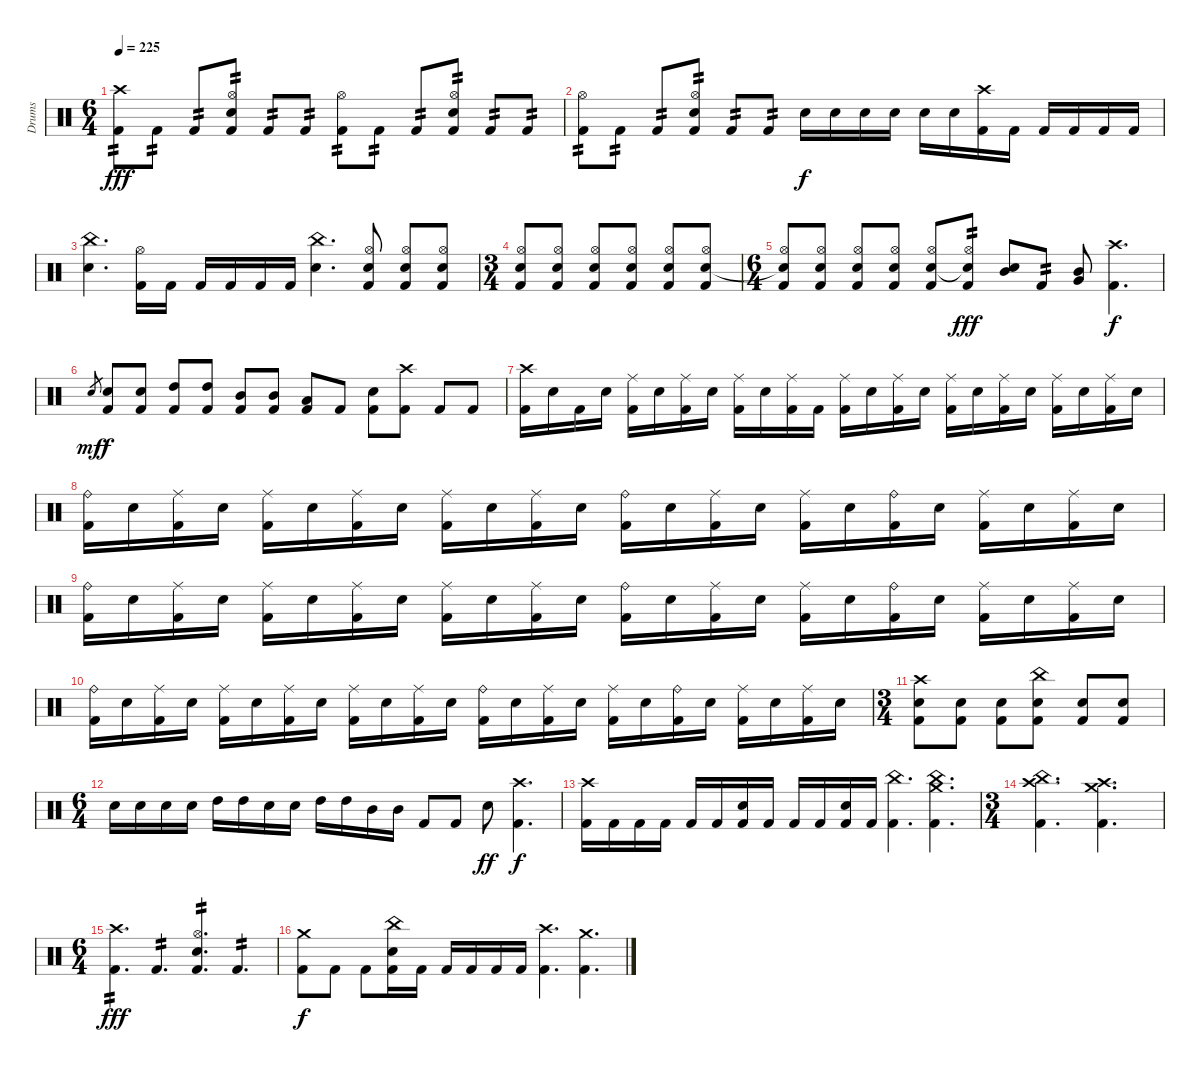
\track ("Drums" "Drums") {instrument percussion}
\staff {score}
\articulation defaults
\ts (6 4)
\tempo 225
\clef neutral
\ks c
("Crash high (hit)" "Kick (hit) 2").8{tp 2 dy fff} "Kick (hit) 2".8{tp 2} "Kick (hit) 2".8{tp 2} ("Hi-Hat (open)" "Snare (hit) 2" "Kick (hit) 2").8{tp 2} "Kick (hit) 2".8{tp 2} "Kick (hit) 2".8{tp 2} ("Hi-Hat (open)" "Kick (hit) 2").8{tp 2} "Kick (hit) 2".8{tp 2} "Kick (hit) 2".8{tp 2} ("Hi-Hat (open)" "Snare (hit) 2" "Kick (hit) 2").8{tp 2} "Kick (hit) 2".8{tp 2} "Kick (hit) 2".8{tp 2} |
("Hi-Hat (open)" "Kick (hit) 2").8{tp 2} "Kick (hit) 2".8{tp 2} "Kick (hit) 2".8{tp 2} ("Hi-Hat (open)" "Snare (hit) 2" "Kick (hit) 2").8{tp 2} "Kick (hit) 2".8{tp 2} "Kick (hit) 2".8{tp 2} "Snare (hit) 2".16{dy f} "Snare (hit) 2".16 "Snare (hit) 2".16 "Snare (hit) 2".16 "Snare (hit) 2".16 "Snare (hit) 2".16 ("Crash high (hit)" "Kick (hit) 2").16 "Kick (hit) 2".16 "Kick (hit) 2".16 "Kick (hit) 2".16 "Kick (hit) 2".16 "Kick (hit) 2".16 |
("China (hit)" "Snare (hit) 2").4{d} ("Hi-Hat (open)" "Kick (hit) 2").16 "Kick (hit) 2".16 "Kick (hit) 2".16 "Kick (hit) 2".16 "Kick (hit) 2".16 "Kick (hit) 2".16 ("China (hit)" "Snare (hit) 2").4{d} ("Hi-Hat (open)" "Snare (hit) 2" "Kick (hit) 2").8 ("Hi-Hat (open)" "Snare (hit) 2" "Kick (hit) 2").8 ("Hi-Hat (open)" "Snare (hit) 2" "Kick (hit) 2").8 |
\ts (3 4)
("Hi-Hat (open)" "Snare (hit) 2" "Kick (hit) 2").8 ("Hi-Hat (open)" "Snare (hit) 2" "Kick (hit) 2").8 ("Hi-Hat (open)" "Snare (hit) 2" "Kick (hit) 2").8 ("Hi-Hat (open)" "Snare (hit) 2" "Kick (hit) 2").8 ("Hi-Hat (open)" "Snare (hit) 2" "Kick (hit) 2").8 ("Hi-Hat (open)" "Snare (hit) 2" "Kick (hit) 2").8 |
\ts (6 4)
("Hi-Hat (open)" "Snare (hit) 2"{t} "Kick (hit) 2").8 ("Hi-Hat (open)" "Snare (hit) 2" "Kick (hit) 2").8 ("Hi-Hat (open)" "Snare (hit) 2" "Kick (hit) 2").8 ("Hi-Hat (open)" "Snare (hit) 2" "Kick (hit) 2").8 ("Hi-Hat (open)" "Snare (hit) 2" "Kick (hit) 2").8 ("Hi-Hat (open)" "Snare (hit) 2"{t} "Kick (hit) 2").8{tp 2 dy fff} ("Mid Tom (hit)" "Snare (hit) 2").8 "Kick (hit) 2".8{tp 2} ("Very Low Tom (hit)" "Mid Tom (hit)").8 ("Crash high (hit)" "Kick (hit) 2").4{d dy f} |
"Snare (hit) 2".8{gr dy mf} ("Snare (hit) 2" "Kick (hit) 2").8{dy f} ("Snare (hit) 2" "Kick (hit) 2").8 ("High Tom (hit)" "Kick (hit) 2").8 ("High Tom (hit)" "Kick (hit) 2").8 ("Mid Tom (hit)" "Kick (hit) 2").8 ("Mid Tom (hit)" "Kick (hit) 2").8 ("Low Tom (hit)" "Kick (hit) 2").8 "Kick (hit) 2".8 ("Snare (hit) 2" "Kick (hit) 2").8 ("Crash high (hit)" "Kick (hit) 2").8 "Kick (hit) 2".8 "Kick (hit) 2".8 |
("Crash high (hit)" "Kick (hit) 2").16 "Snare (hit) 2".16 "Kick (hit) 2".16 "Snare (hit) 2".16 ("Ride (middle)" "Kick (hit) 2").16 "Snare (hit) 2".16 ("Ride (middle)" "Kick (hit) 2").16 "Snare (hit) 2".16 ("Ride (middle)" "Kick (hit) 2").16 "Snare (hit) 2".16 ("Ride (middle)" "Kick (hit) 2").16 "Kick (hit) 2".16 ("Ride (middle)" "Kick (hit) 2").16 "Snare (hit) 2".16 ("Ride (middle)" "Kick (hit) 2").16 "Snare (hit) 2".16 ("Ride (middle)" "Kick (hit) 2").16 "Snare (hit) 2".16 ("Ride (middle)" "Kick (hit) 2").16 "Snare (hit) 2".16 ("Ride (middle)" "Kick (hit) 2").16 "Snare (hit) 2".16 ("Ride (middle)" "Kick (hit) 2").16 "Snare (hit) 2".16 |
("Ride (bell)" "Kick (hit) 2").16 "Snare (hit) 2".16 ("Ride (middle)" "Kick (hit) 2").16 "Snare (hit) 2".16 ("Ride (middle)" "Kick (hit) 2").16 "Snare (hit) 2".16 ("Ride (middle)" "Kick (hit) 2").16 "Snare (hit) 2".16 ("Ride (middle)" "Kick (hit) 2").16 "Snare (hit) 2".16 ("Ride (middle)" "Kick (hit) 2").16 "Snare (hit) 2".16 ("Ride (bell)" "Kick (hit) 2").16 "Snare (hit) 2".16 ("Ride (middle)" "Kick (hit) 2").16 "Snare (hit) 2".16 ("Ride (middle)" "Kick (hit) 2").16 "Snare (hit) 2".16 ("Ride (bell)" "Kick (hit) 2").16 "Snare (hit) 2".16 ("Ride (middle)" "Kick (hit) 2").16 "Snare (hit) 2".16 ("Ride (middle)" "Kick (hit) 2").16 "Snare (hit) 2".16 |
("Ride (bell)" "Kick (hit) 2").16 "Snare (hit) 2".16 ("Ride (middle)" "Kick (hit) 2").16 "Snare (hit) 2".16 ("Ride (middle)" "Kick (hit) 2").16 "Snare (hit) 2".16 ("Ride (middle)" "Kick (hit) 2").16 "Snare (hit) 2".16 ("Ride (middle)" "Kick (hit) 2").16 "Snare (hit) 2".16 ("Ride (middle)" "Kick (hit) 2").16 "Snare (hit) 2".16 ("Ride (bell)" "Kick (hit) 2").16 "Snare (hit) 2".16 ("Ride (middle)" "Kick (hit) 2").16 "Snare (hit) 2".16 ("Ride (middle)" "Kick (hit) 2").16 "Snare (hit) 2".16 ("Ride (bell)" "Kick (hit) 2").16 "Snare (hit) 2".16 ("Ride (middle)" "Kick (hit) 2").16 "Snare (hit) 2".16 ("Ride (middle)" "Kick (hit) 2").16 "Snare (hit) 2".16 |
("Ride (bell)" "Kick (hit) 2").16 "Snare (hit) 2".16 ("Ride (middle)" "Kick (hit) 2").16 "Snare (hit) 2".16 ("Ride (middle)" "Kick (hit) 2").16 "Snare (hit) 2".16 ("Ride (middle)" "Kick (hit) 2").16 "Snare (hit) 2".16 ("Ride (middle)" "Kick (hit) 2").16 "Snare (hit) 2".16 ("Ride (middle)" "Kick (hit) 2").16 "Snare (hit) 2".16 ("Ride (bell)" "Kick (hit) 2").16 "Snare (hit) 2".16 ("Ride (middle)" "Kick (hit) 2").16 "Snare (hit) 2".16 ("Ride (middle)" "Kick (hit) 2").16 "Snare (hit) 2".16 ("Ride (bell)" "Kick (hit) 2").16 "Snare (hit) 2".16 ("Ride (middle)" "Kick (hit) 2").16 "Snare (hit) 2".16 ("Ride (middle)" "Kick (hit) 2").16 "Snare (hit) 2".16 |
\ts (3 4)
("Crash high (hit)" "Snare (hit) 2" "Kick (hit) 2").8 ("Snare (hit) 2" "Kick (hit) 2").8 ("Snare (hit) 2" "Kick (hit) 2").8 ("China (hit)" "Snare (hit) 2" "Kick (hit) 2").8 ("Snare (hit) 2" "Kick (hit) 2").8 ("Snare (hit) 2" "Kick (hit) 2").8 |
\ts (6 4)
"Snare (hit) 2".16 "Snare (hit) 2".16 "Snare (hit) 2".16 "Snare (hit) 2".16 "High Tom (hit)".16 "High Tom (hit)".16 "Snare (hit) 2".16 "Snare (hit) 2".16 "High Tom (hit)".16 "High Tom (hit)".16 "Mid Tom (hit)".16 "Mid Tom (hit)".16 "Kick (hit) 2".8 "Kick (hit) 2".8 "Snare (hit) 2".8{dy ff} ("Crash high (hit)" "Kick (hit) 2").4{d dy f} |
("Crash high (hit)" "Kick (hit) 2").16 "Kick (hit) 2".16 "Kick (hit) 2".16 "Kick (hit) 2".16 "Kick (hit) 2".16 "Kick (hit) 2".16 ("Snare (hit) 2" "Kick (hit) 2").16 "Kick (hit) 2".16 "Kick (hit) 2".16 "Kick (hit) 2".16 ("Snare (hit) 2" "Kick (hit) 2").16 "Kick (hit) 2".16 ("China (hit)" "Kick (hit) 2").4{d} ("Crash medium (hit)" "China (hit)" "Kick (hit) 2").4{d} |
\ts (3 4)
("China (hit)" "Crash high (hit)" "Kick (hit) 2").4{d} ("Crash medium (hit)" "Crash high (hit)" "Kick (hit) 2").4{d} |
\ts (6 4)
("Crash high (hit)" "Kick (hit) 2").4{d tp 2 dy fff} "Kick (hit) 2".4{d tp 2} ("Hi-Hat (open)" "Snare (hit) 2" "Kick (hit) 2").4{d tp 2} "Kick (hit) 2".4{d tp 2} |
("Crash medium (hit)" "Kick (hit) 2").8{dy f} "Kick (hit) 2".8 "Kick (hit) 2".8 ("China (hit)" "Snare (hit) 2" "Kick (hit) 2").16 "Kick (hit) 2".16 "Kick (hit) 2".16 "Kick (hit) 2".16 "Kick (hit) 2".16 "Kick (hit) 2".16 ("Crash high (hit)" "Kick (hit) 2").4{d} ("Crash medium (hit)" "Kick (hit) 2").4{d}
